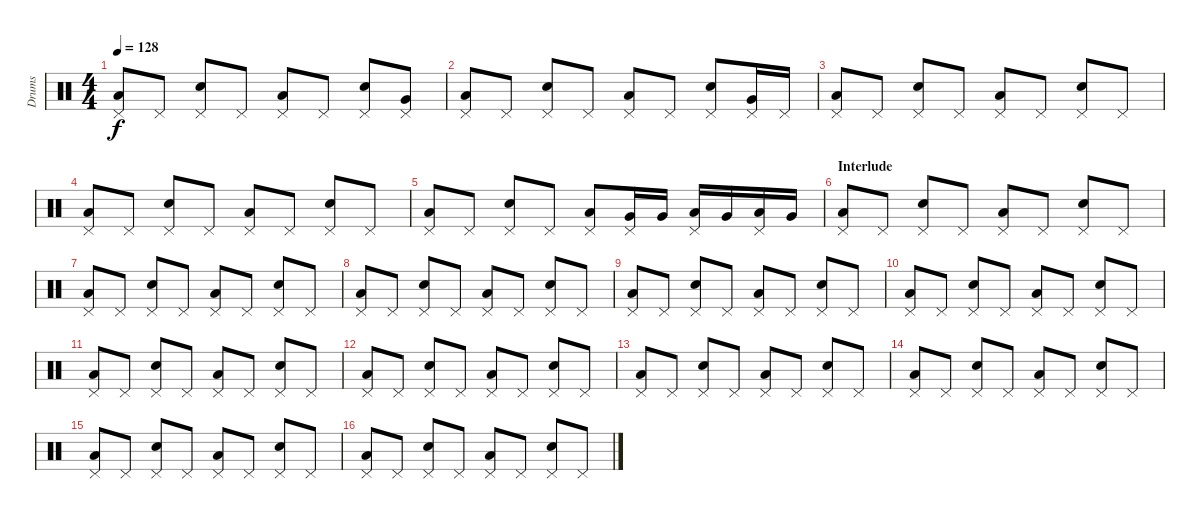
\track ("Drums" "Drums") {instrument percussion}
\staff {score}
\articulation defaults
\ts (4 4)
\tempo 128
\clef neutral
\ks c
("Pedal Hi-Hat (hit)" "Low Floor Tom (hit)").8{dy f} "Pedal Hi-Hat (hit)".8 ("Pedal Hi-Hat (hit)" "Electric Snare (hit)").8 "Pedal Hi-Hat (hit)".8 ("Pedal Hi-Hat (hit)" "Low Floor Tom (hit)").8 "Pedal Hi-Hat (hit)".8 ("Pedal Hi-Hat (hit)" "Electric Snare (hit)").8 ("Pedal Hi-Hat (hit)" "Very Low Tom (hit)").8 |
("Pedal Hi-Hat (hit)" "Low Floor Tom (hit)").8 "Pedal Hi-Hat (hit)".8 ("Pedal Hi-Hat (hit)" "Electric Snare (hit)").8 "Pedal Hi-Hat (hit)".8 ("Pedal Hi-Hat (hit)" "Low Floor Tom (hit)").8 "Pedal Hi-Hat (hit)".8 ("Pedal Hi-Hat (hit)" "Electric Snare (hit)").8 ("Pedal Hi-Hat (hit)" "Very Low Tom (hit)").16 "Pedal Hi-Hat (hit)".16 |
("Pedal Hi-Hat (hit)" "Low Floor Tom (hit)").8 "Pedal Hi-Hat (hit)".8 ("Pedal Hi-Hat (hit)" "Electric Snare (hit)").8 "Pedal Hi-Hat (hit)".8 ("Pedal Hi-Hat (hit)" "Low Floor Tom (hit)").8 "Pedal Hi-Hat (hit)".8 ("Pedal Hi-Hat (hit)" "Electric Snare (hit)").8 "Pedal Hi-Hat (hit)".8 |
("Pedal Hi-Hat (hit)" "Low Floor Tom (hit)").8 "Pedal Hi-Hat (hit)".8 ("Pedal Hi-Hat (hit)" "Electric Snare (hit)").8 "Pedal Hi-Hat (hit)".8 ("Pedal Hi-Hat (hit)" "Low Floor Tom (hit)").8 "Pedal Hi-Hat (hit)".8 ("Pedal Hi-Hat (hit)" "Electric Snare (hit)").8 "Pedal Hi-Hat (hit)".8 |
("Pedal Hi-Hat (hit)" "Low Floor Tom (hit)").8 "Pedal Hi-Hat (hit)".8 ("Pedal Hi-Hat (hit)" "Electric Snare (hit)").8 "Pedal Hi-Hat (hit)".8 ("Pedal Hi-Hat (hit)" "Low Floor Tom (hit)").8 ("Pedal Hi-Hat (hit)" "Very Low Tom (hit)").16 "Very Low Tom (hit)".16 ("Pedal Hi-Hat (hit)" "Low Floor Tom (hit)").16 "Very Low Tom (hit)".16 ("Pedal Hi-Hat (hit)" "Low Floor Tom (hit)").16 "Very Low Tom (hit)".16 |
\section ("" "Interlude")
("Pedal Hi-Hat (hit)" "Low Floor Tom (hit)").8 "Pedal Hi-Hat (hit)".8 ("Pedal Hi-Hat (hit)" "Electric Snare (hit)").8 "Pedal Hi-Hat (hit)".8 ("Pedal Hi-Hat (hit)" "Low Floor Tom (hit)").8 "Pedal Hi-Hat (hit)".8 ("Pedal Hi-Hat (hit)" "Electric Snare (hit)").8 "Pedal Hi-Hat (hit)".8 |
("Pedal Hi-Hat (hit)" "Low Floor Tom (hit)").8 "Pedal Hi-Hat (hit)".8 ("Pedal Hi-Hat (hit)" "Electric Snare (hit)").8 "Pedal Hi-Hat (hit)".8 ("Pedal Hi-Hat (hit)" "Low Floor Tom (hit)").8 "Pedal Hi-Hat (hit)".8 ("Pedal Hi-Hat (hit)" "Electric Snare (hit)").8 "Pedal Hi-Hat (hit)".8 |
("Pedal Hi-Hat (hit)" "Low Floor Tom (hit)").8 "Pedal Hi-Hat (hit)".8 ("Pedal Hi-Hat (hit)" "Electric Snare (hit)").8 "Pedal Hi-Hat (hit)".8 ("Pedal Hi-Hat (hit)" "Low Floor Tom (hit)").8 "Pedal Hi-Hat (hit)".8 ("Pedal Hi-Hat (hit)" "Electric Snare (hit)").8 "Pedal Hi-Hat (hit)".8 |
("Pedal Hi-Hat (hit)" "Low Floor Tom (hit)").8 "Pedal Hi-Hat (hit)".8 ("Pedal Hi-Hat (hit)" "Electric Snare (hit)").8 "Pedal Hi-Hat (hit)".8 ("Pedal Hi-Hat (hit)" "Low Floor Tom (hit)").8 "Pedal Hi-Hat (hit)".8 ("Pedal Hi-Hat (hit)" "Electric Snare (hit)").8 "Pedal Hi-Hat (hit)".8 |
("Pedal Hi-Hat (hit)" "Low Floor Tom (hit)").8 "Pedal Hi-Hat (hit)".8 ("Pedal Hi-Hat (hit)" "Electric Snare (hit)").8 "Pedal Hi-Hat (hit)".8 ("Pedal Hi-Hat (hit)" "Low Floor Tom (hit)").8 "Pedal Hi-Hat (hit)".8 ("Pedal Hi-Hat (hit)" "Electric Snare (hit)").8 "Pedal Hi-Hat (hit)".8 |
("Pedal Hi-Hat (hit)" "Low Floor Tom (hit)").8 "Pedal Hi-Hat (hit)".8 ("Pedal Hi-Hat (hit)" "Electric Snare (hit)").8 "Pedal Hi-Hat (hit)".8 ("Pedal Hi-Hat (hit)" "Low Floor Tom (hit)").8 "Pedal Hi-Hat (hit)".8 ("Pedal Hi-Hat (hit)" "Electric Snare (hit)").8 "Pedal Hi-Hat (hit)".8 |
("Pedal Hi-Hat (hit)" "Low Floor Tom (hit)").8 "Pedal Hi-Hat (hit)".8 ("Pedal Hi-Hat (hit)" "Electric Snare (hit)").8 "Pedal Hi-Hat (hit)".8 ("Pedal Hi-Hat (hit)" "Low Floor Tom (hit)").8 "Pedal Hi-Hat (hit)".8 ("Pedal Hi-Hat (hit)" "Electric Snare (hit)").8 "Pedal Hi-Hat (hit)".8 |
("Pedal Hi-Hat (hit)" "Low Floor Tom (hit)").8 "Pedal Hi-Hat (hit)".8 ("Pedal Hi-Hat (hit)" "Electric Snare (hit)").8 "Pedal Hi-Hat (hit)".8 ("Pedal Hi-Hat (hit)" "Low Floor Tom (hit)").8 "Pedal Hi-Hat (hit)".8 ("Pedal Hi-Hat (hit)" "Electric Snare (hit)").8 "Pedal Hi-Hat (hit)".8 |
("Pedal Hi-Hat (hit)" "Low Floor Tom (hit)").8 "Pedal Hi-Hat (hit)".8 ("Pedal Hi-Hat (hit)" "Electric Snare (hit)").8 "Pedal Hi-Hat (hit)".8 ("Pedal Hi-Hat (hit)" "Low Floor Tom (hit)").8 "Pedal Hi-Hat (hit)".8 ("Pedal Hi-Hat (hit)" "Electric Snare (hit)").8 "Pedal Hi-Hat (hit)".8 |
("Pedal Hi-Hat (hit)" "Low Floor Tom (hit)").8 "Pedal Hi-Hat (hit)".8 ("Pedal Hi-Hat (hit)" "Electric Snare (hit)").8 "Pedal Hi-Hat (hit)".8 ("Pedal Hi-Hat (hit)" "Low Floor Tom (hit)").8 "Pedal Hi-Hat (hit)".8 ("Pedal Hi-Hat (hit)" "Electric Snare (hit)").8 "Pedal Hi-Hat (hit)".8 |
("Pedal Hi-Hat (hit)" "Low Floor Tom (hit)").8 "Pedal Hi-Hat (hit)".8 ("Pedal Hi-Hat (hit)" "Electric Snare (hit)").8 "Pedal Hi-Hat (hit)".8 ("Pedal Hi-Hat (hit)" "Low Floor Tom (hit)").8 "Pedal Hi-Hat (hit)".8 ("Pedal Hi-Hat (hit)" "Electric Snare (hit)").8 "Pedal Hi-Hat (hit)".8
